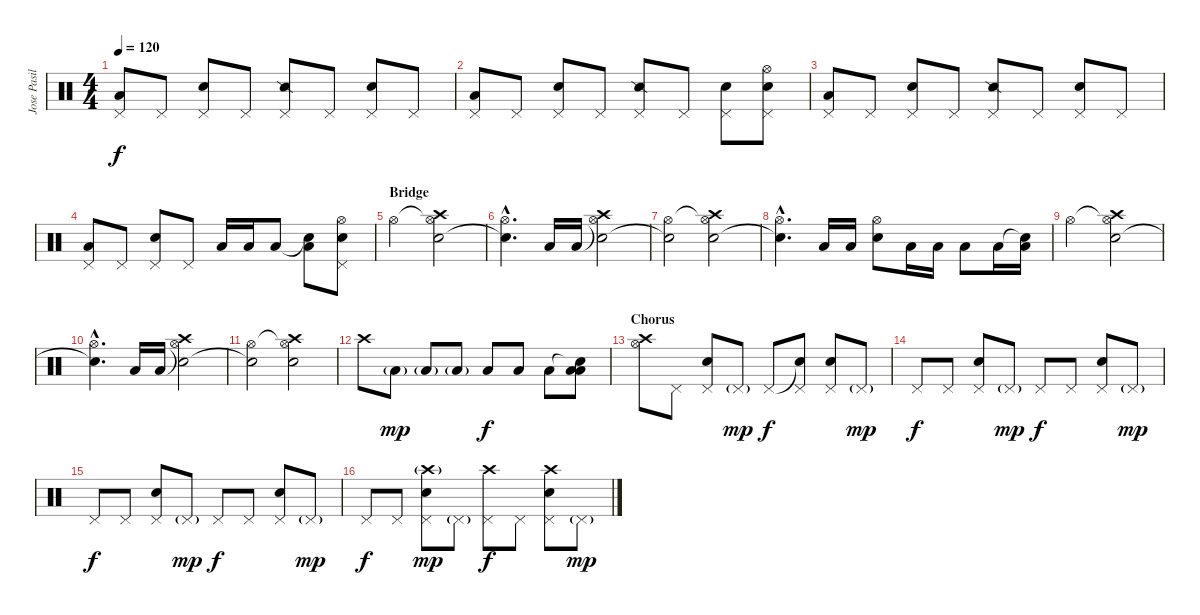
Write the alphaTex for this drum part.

\track ("Jose Pasillas II" "Jose Pasil") {instrument percussion}
\staff {score}
\articulation defaults
\ts (4 4)
\tempo 120
\clef neutral
\ks c
("Pedal Hi-Hat (hit)" "Low Floor Tom (hit)").8{dy f} "Pedal Hi-Hat (hit)".8 ("Pedal Hi-Hat (hit)" "Electric Snare (hit)").8 "Pedal Hi-Hat (hit)".8 ("Pedal Hi-Hat (hit)" "Snare (side stick) 2").8 "Pedal Hi-Hat (hit)".8 ("Pedal Hi-Hat (hit)" "Electric Snare (hit)").8 "Pedal Hi-Hat (hit)".8 |
("Pedal Hi-Hat (hit)" "Low Floor Tom (hit)").8 "Pedal Hi-Hat (hit)".8 ("Pedal Hi-Hat (hit)" "Electric Snare (hit)").8 "Pedal Hi-Hat (hit)".8 ("Pedal Hi-Hat (hit)" "Snare (side stick) 2").8 "Pedal Hi-Hat (hit)".8 ("Pedal Hi-Hat (hit)" "Electric Snare (hit)").8 ("Pedal Hi-Hat (hit)" "Hi-Hat (open)" "Electric Snare (hit)").8 |
("Pedal Hi-Hat (hit)" "Low Floor Tom (hit)").8 "Pedal Hi-Hat (hit)".8 ("Pedal Hi-Hat (hit)" "Electric Snare (hit)").8 "Pedal Hi-Hat (hit)".8 ("Pedal Hi-Hat (hit)" "Snare (side stick) 2").8 "Pedal Hi-Hat (hit)".8 ("Pedal Hi-Hat (hit)" "Electric Snare (hit)").8 "Pedal Hi-Hat (hit)".8 |
("Pedal Hi-Hat (hit)" "Low Floor Tom (hit)").8 "Pedal Hi-Hat (hit)".8 ("Pedal Hi-Hat (hit)" "Electric Snare (hit)").8 "Pedal Hi-Hat (hit)".8 "Low Tom (hit)".16 "Low Tom (hit)".16 "Low Floor Tom (hit)".8 ("Snare (hit)"{t} "Low Tom (hit)").8 ("Hi-Hat (open)" "Pedal Hi-Hat (hit)" "Electric Snare (hit)").8 |
\section ("" "Bridge")
"Hi-Hat (open)".2 ("Hi-Hat (open)"{t} "Electric Snare (hit)" "Crash high (hit)").2 |
("Hi-Hat (open)"{hac} "Snare (hit)"{hac t}).4{d} "Low Tom (hit)".16 "Low Tom (hit)".16 ("Hi-Hat (open)"{t} "Electric Snare (hit)" "Crash high (hit)").2 |
("Hi-Hat (open)" "Snare (hit)"{t}).2 ("Hi-Hat (open)"{t} "Electric Snare (hit)" "Crash high (hit)").2 |
("Hi-Hat (open)"{hac} "Snare (hit)"{hac t}).4{d} "Low Tom (hit)".16 "Low Tom (hit)".16 ("Hi-Hat (open)" "Electric Snare (hit)").8 "Low Tom (hit)".16 "Low Tom (hit)".16 "Low Tom (hit)".8 "Low Tom (hit)".16 ("Snare (hit)"{t} "Low Tom (hit)").16 |
"Hi-Hat (open)".2 ("Hi-Hat (open)"{t} "Electric Snare (hit)" "Crash high (hit)").2 |
("Hi-Hat (open)"{hac} "Snare (hit)"{hac t}).4{d} "Low Tom (hit)".16 "Low Tom (hit)".16 ("Hi-Hat (open)"{t} "Electric Snare (hit)" "Crash high (hit)").2 |
("Hi-Hat (open)" "Snare (hit)"{t}).2 ("Hi-Hat (open)"{t} "Electric Snare (hit)" "Crash high (hit)").2 |
"Crash high (hit)".8 "Low Tom (hit)"{g}.8{dy mp} "Low Tom (hit)"{g}.8 "Low Tom (hit)"{g}.8 "Low Tom (hit)".8{dy f} "Low Tom (hit)".8 "Low Tom (hit)".8 ("Snare (hit)"{t} "Low Tom (hit)" "Low Floor Tom (hit)").8 |
\section ("" "Chorus")
("Crash high (hit)" "Hi-Hat (open)").8 "Pedal Hi-Hat (hit)".8 ("Pedal Hi-Hat (hit)" "Electric Snare (hit)").8 "Pedal Hi-Hat (hit)"{g}.8{dy mp} "Pedal Hi-Hat (hit)".8{dy f} ("Snare (hit)"{t} "Pedal Hi-Hat (hit)").8 ("Pedal Hi-Hat (hit)" "Electric Snare (hit)").8 "Pedal Hi-Hat (hit)"{g}.8{dy mp} |
"Pedal Hi-Hat (hit)".8{dy f} "Pedal Hi-Hat (hit)".8 ("Pedal Hi-Hat (hit)" "Electric Snare (hit)").8 "Pedal Hi-Hat (hit)"{g}.8{dy mp} "Pedal Hi-Hat (hit)".8{dy f} "Pedal Hi-Hat (hit)".8 ("Pedal Hi-Hat (hit)" "Electric Snare (hit)").8 "Pedal Hi-Hat (hit)"{g}.8{dy mp} |
"Pedal Hi-Hat (hit)".8{dy f} "Pedal Hi-Hat (hit)".8 ("Pedal Hi-Hat (hit)" "Electric Snare (hit)").8 "Pedal Hi-Hat (hit)"{g}.8{dy mp} "Pedal Hi-Hat (hit)".8{dy f} "Pedal Hi-Hat (hit)".8 ("Pedal Hi-Hat (hit)" "Electric Snare (hit)").8 "Pedal Hi-Hat (hit)"{g}.8{dy mp} |
"Pedal Hi-Hat (hit)".8{dy f} "Pedal Hi-Hat (hit)".8 ("Crash high (hit)"{g} "Pedal Hi-Hat (hit)" "Electric Snare (hit)").8{dy mp} "Pedal Hi-Hat (hit)"{g}.8 ("Crash high (hit)" "Pedal Hi-Hat (hit)").8{dy f} "Pedal Hi-Hat (hit)".8 ("Crash high (hit)" "Pedal Hi-Hat (hit)" "Electric Snare (hit)").8 "Pedal Hi-Hat (hit)"{g}.8{dy mp}
